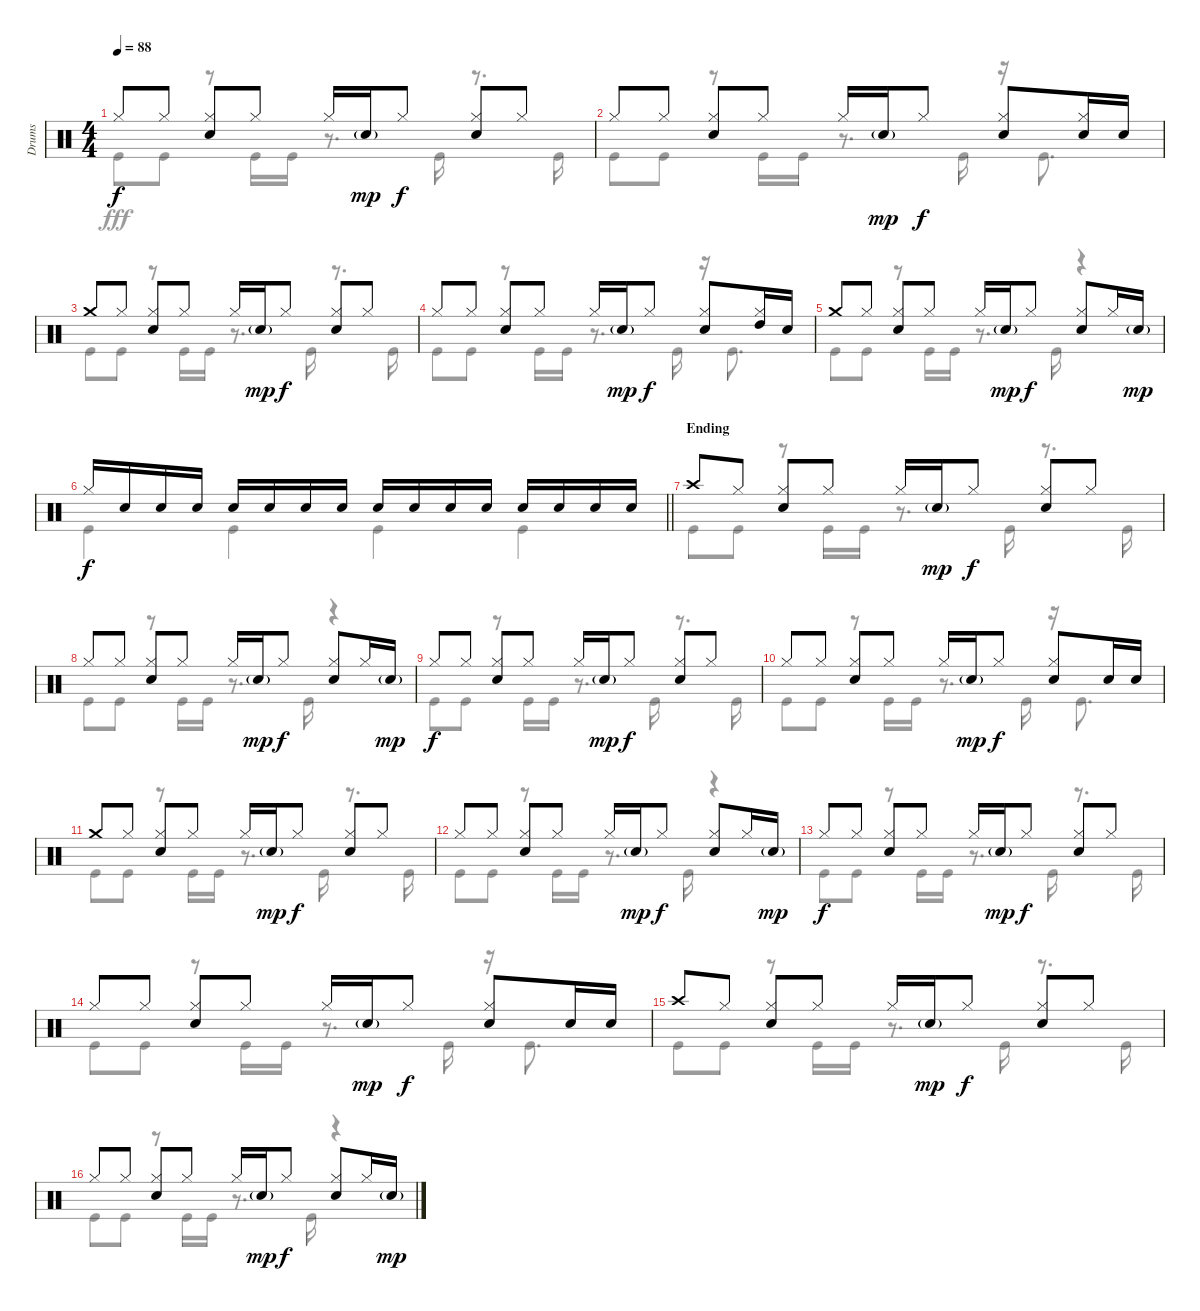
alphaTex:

\track ("Drums" "Drums") {instrument percussion}
\staff {score}
\articulation defaults
\voice
\ts (4 4)
\tempo 88
\clef neutral
\ks c "Hi-Hat (closed)".8{dy f} "Hi-Hat (closed)".8
("Hi-Hat (closed)" "Snare (hit) 2").8 "Hi-Hat (closed)".8 "Hi-Hat (closed)".16 "Snare (hit) 2"{g}.16{dy mp} "Hi-Hat (closed)".8{dy f} ("Hi-Hat (closed)" "Snare (hit) 2").8 "Hi-Hat (closed)".8 |
"Hi-Hat (closed)".8 "Hi-Hat (closed)".8 ("Hi-Hat (closed)" "Snare (hit) 2").8 "Hi-Hat (closed)".8 "Hi-Hat (closed)".16 "Snare (hit) 2"{g}.16{dy mp} "Hi-Hat (closed)".8{dy f} ("Hi-Hat (closed)" "Snare (hit) 2").8 ("Hi-Hat (closed)" "Snare (hit) 2").16 "Snare (hit) 2".16 |
"Crash medium (hit)".8 "Hi-Hat (closed)".8 ("Hi-Hat (closed)" "Snare (hit) 2").8 "Hi-Hat (closed)".8 "Hi-Hat (closed)".16 "Snare (hit) 2"{g}.16{dy mp} "Hi-Hat (closed)".8{dy f} ("Hi-Hat (closed)" "Snare (hit) 2").8 "Hi-Hat (closed)".8 |
"Hi-Hat (closed)".8 "Hi-Hat (closed)".8 ("Hi-Hat (closed)" "Snare (hit) 2").8 "Hi-Hat (closed)".8 "Hi-Hat (closed)".16 "Snare (hit) 2"{g}.16{dy mp} "Hi-Hat (closed)".8{dy f} ("Hi-Hat (closed)" "Snare (hit) 2").8 ("Hi-Hat (closed)" "High Tom (hit)").16 "Snare (hit) 2".16 |
"Crash medium (hit)".8 "Hi-Hat (closed)".8 ("Hi-Hat (closed)" "Snare (hit) 2").8 "Hi-Hat (closed)".8 "Hi-Hat (closed)".16 "Snare (hit) 2"{g}.16{dy mp} "Hi-Hat (closed)".8{dy f} ("Hi-Hat (closed)" "Snare (hit) 2").8 "Hi-Hat (closed)".16 "Snare (hit) 2"{g}.16{dy mp} |
\barLineRight lightlight "Hi-Hat (closed)".16{dy f} "Snare (hit) 2".16 "Snare (hit) 2".16 "Snare (hit) 2".16 "Snare (hit) 2".16 "Snare (hit) 2".16 "Snare (hit) 2".16 "Snare (hit) 2".16 "Snare (hit) 2".16 "Snare (hit) 2".16 "Snare (hit) 2".16 "Snare (hit) 2".16 "Snare (hit) 2".16 "Snare (hit) 2".16 "Snare (hit) 2".16 "Snare (hit) 2".16
|
\section ("" "Ending")
"Crash high (hit)".8 "Hi-Hat (closed)".8 ("Hi-Hat (closed)" "Snare (hit) 2").8 "Hi-Hat (closed)".8 "Hi-Hat (closed)".16 "Snare (hit) 2"{g}.16{dy mp} "Hi-Hat (closed)".8{dy f} ("Hi-Hat (closed)" "Snare (hit) 2").8 "Hi-Hat (closed)".8 |
"Hi-Hat (closed)".8 "Hi-Hat (closed)".8 ("Hi-Hat (closed)" "Snare (hit) 2").8 "Hi-Hat (closed)".8 "Hi-Hat (closed)".16 "Snare (hit) 2"{g}.16{dy mp} "Hi-Hat (closed)".8{dy f} ("Hi-Hat (closed)" "Snare (hit) 2").8 "Hi-Hat (closed)".16 "Snare (hit) 2"{g}.16{dy mp} |
"Hi-Hat (closed)".8{dy f} "Hi-Hat (closed)".8 ("Hi-Hat (closed)" "Snare (hit) 2").8 "Hi-Hat (closed)".8 "Hi-Hat (closed)".16 "Snare (hit) 2"{g}.16{dy mp} "Hi-Hat (closed)".8{dy f} ("Hi-Hat (closed)" "Snare (hit) 2").8 "Hi-Hat (closed)".8 |
"Hi-Hat (closed)".8 "Hi-Hat (closed)".8 ("Hi-Hat (closed)" "Snare (hit) 2").8 "Hi-Hat (closed)".8 "Hi-Hat (closed)".16 "Snare (hit) 2"{g}.16{dy mp} "Hi-Hat (closed)".8{dy f} ("Hi-Hat (closed)" "Snare (hit) 2").8 "Snare (hit) 2".16 "Snare (hit) 2".16 |
"Crash medium (hit)".8 "Hi-Hat (closed)".8 ("Hi-Hat (closed)" "Snare (hit) 2").8 "Hi-Hat (closed)".8 "Hi-Hat (closed)".16 "Snare (hit) 2"{g}.16{dy mp} "Hi-Hat (closed)".8{dy f} ("Hi-Hat (closed)" "Snare (hit) 2").8 "Hi-Hat (closed)".8 |
"Hi-Hat (closed)".8 "Hi-Hat (closed)".8 ("Hi-Hat (closed)" "Snare (hit) 2").8 "Hi-Hat (closed)".8 "Hi-Hat (closed)".16 "Snare (hit) 2"{g}.16{dy mp} "Hi-Hat (closed)".8{dy f} ("Hi-Hat (closed)" "Snare (hit) 2").8 "Hi-Hat (closed)".16 "Snare (hit) 2"{g}.16{dy mp} |
"Hi-Hat (closed)".8{dy f} "Hi-Hat (closed)".8 ("Hi-Hat (closed)" "Snare (hit) 2").8 "Hi-Hat (closed)".8 "Hi-Hat (closed)".16 "Snare (hit) 2"{g}.16{dy mp} "Hi-Hat (closed)".8{dy f} ("Hi-Hat (closed)" "Snare (hit) 2").8 "Hi-Hat (closed)".8 |
"Hi-Hat (closed)".8 "Hi-Hat (closed)".8 ("Hi-Hat (closed)" "Snare (hit) 2").8 "Hi-Hat (closed)".8 "Hi-Hat (closed)".16 "Snare (hit) 2"{g}.16{dy mp} "Hi-Hat (closed)".8{dy f} ("Hi-Hat (closed)" "Snare (hit) 2").8 "Snare (hit) 2".16 "Snare (hit) 2".16 |
"Crash high (hit)".8 "Hi-Hat (closed)".8 ("Hi-Hat (closed)" "Snare (hit) 2").8 "Hi-Hat (closed)".8 "Hi-Hat (closed)".16 "Snare (hit) 2"{g}.16{dy mp} "Hi-Hat (closed)".8{dy f} ("Hi-Hat (closed)" "Snare (hit) 2").8 "Hi-Hat (closed)".8 |
"Hi-Hat (closed)".8 "Hi-Hat (closed)".8 ("Hi-Hat (closed)" "Snare (hit) 2").8 "Hi-Hat (closed)".8 "Hi-Hat (closed)".16 "Snare (hit) 2"{g}.16{dy mp} "Hi-Hat (closed)".8{dy f} ("Hi-Hat (closed)" "Snare (hit) 2").8 "Hi-Hat (closed)".16 "Snare (hit) 2"{g}.16{dy mp}
\voice
\clef neutral
\ottava regular
\simile none
\ks c "Kick (hit)".8{dy fff} "Kick (hit)".8
r.8 "Kick (hit)".16 "Kick (hit)".16 r.8{d} "Kick (hit)".16 r.8{d} "Kick (hit)".16 |
"Kick (hit)".8 "Kick (hit)".8 r.8 "Kick (hit)".16 "Kick (hit)".16 r.8{d} "Kick (hit)".16 r.16 "Kick (hit)".8{d} |
"Kick (hit)".8 "Kick (hit)".8 r.8 "Kick (hit)".16 "Kick (hit)".16 r.8{d} "Kick (hit)".16 r.8{d} "Kick (hit)".16 |
"Kick (hit)".8 "Kick (hit)".8 r.8 "Kick (hit)".16 "Kick (hit)".16 r.8{d} "Kick (hit)".16 r.16 "Kick (hit)".8{d} |
"Kick (hit)".8 "Kick (hit)".8 r.8 "Kick (hit)".16 "Kick (hit)".16 r.8{d} "Kick (hit)".16 r.4 |
\barLineRight lightlight "Kick (hit)".4 "Kick (hit)".4 "Kick (hit)".4 "Kick (hit)".4
|
"Kick (hit)".8 "Kick (hit)".8 r.8 "Kick (hit)".16 "Kick (hit)".16 r.8{d} "Kick (hit)".16 r.8{d} "Kick (hit)".16 |
"Kick (hit)".8 "Kick (hit)".8 r.8 "Kick (hit)".16 "Kick (hit)".16 r.8{d} "Kick (hit)".16 r.4 |
"Kick (hit)".8 "Kick (hit)".8 r.8 "Kick (hit)".16 "Kick (hit)".16 r.8{d} "Kick (hit)".16 r.8{d} "Kick (hit)".16 |
"Kick (hit)".8 "Kick (hit)".8 r.8 "Kick (hit)".16 "Kick (hit)".16 r.8{d} "Kick (hit)".16 r.16 "Kick (hit)".8{d} |
"Kick (hit)".8 "Kick (hit)".8 r.8 "Kick (hit)".16 "Kick (hit)".16 r.8{d} "Kick (hit)".16 r.8{d} "Kick (hit)".16 |
"Kick (hit)".8 "Kick (hit)".8 r.8 "Kick (hit)".16 "Kick (hit)".16 r.8{d} "Kick (hit)".16 r.4 |
"Kick (hit)".8 "Kick (hit)".8 r.8 "Kick (hit)".16 "Kick (hit)".16 r.8{d} "Kick (hit)".16 r.8{d} "Kick (hit)".16 |
"Kick (hit)".8 "Kick (hit)".8 r.8 "Kick (hit)".16 "Kick (hit)".16 r.8{d} "Kick (hit)".16 r.16 "Kick (hit)".8{d} |
"Kick (hit)".8 "Kick (hit)".8 r.8 "Kick (hit)".16 "Kick (hit)".16 r.8{d} "Kick (hit)".16 r.8{d} "Kick (hit)".16 |
"Kick (hit)".8 "Kick (hit)".8 r.8 "Kick (hit)".16 "Kick (hit)".16 r.8{d} "Kick (hit)".16 r.4
